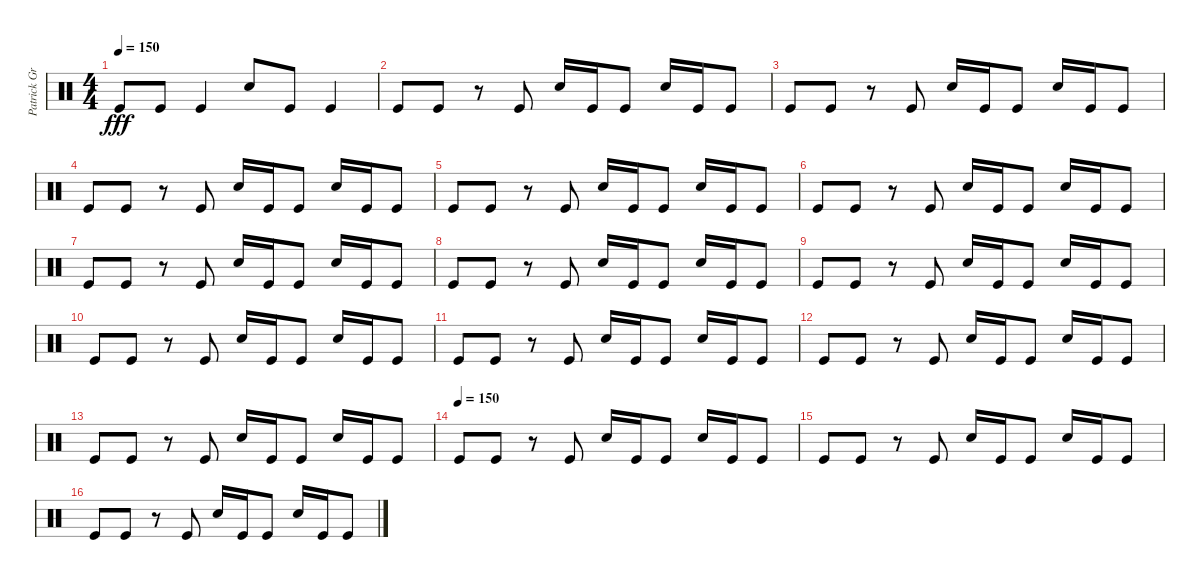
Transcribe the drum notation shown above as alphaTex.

\track ("Patrick Grün - Drums" "Patrick Gr") {instrument percussion}
\staff {score}
\articulation defaults
\ts (4 4)
\tempo 150
\clef neutral
\ks c "Kick (hit)".8{dy fff} "Kick (hit)".8 "Kick (hit)".4 "Snare (hit) 2".8 "Kick (hit)".8 "Kick (hit)".4
|
"Kick (hit)".8 "Kick (hit)".8 r.8 "Kick (hit)".8 "Snare (hit) 2".16 "Kick (hit)".16 "Kick (hit)".8 "Snare (hit) 2".16 "Kick (hit)".16 "Kick (hit)".8 |
"Kick (hit)".8 "Kick (hit)".8 r.8 "Kick (hit)".8 "Snare (hit) 2".16 "Kick (hit)".16 "Kick (hit)".8 "Snare (hit) 2".16 "Kick (hit)".16 "Kick (hit)".8 |
"Kick (hit)".8 "Kick (hit)".8 r.8 "Kick (hit)".8 "Snare (hit) 2".16 "Kick (hit)".16 "Kick (hit)".8 "Snare (hit) 2".16 "Kick (hit)".16 "Kick (hit)".8 |
"Kick (hit)".8 "Kick (hit)".8 r.8 "Kick (hit)".8 "Snare (hit) 2".16 "Kick (hit)".16 "Kick (hit)".8 "Snare (hit) 2".16 "Kick (hit)".16 "Kick (hit)".8 |
"Kick (hit)".8 "Kick (hit)".8 r.8 "Kick (hit)".8 "Snare (hit) 2".16 "Kick (hit)".16 "Kick (hit)".8 "Snare (hit) 2".16 "Kick (hit)".16 "Kick (hit)".8 |
"Kick (hit)".8 "Kick (hit)".8 r.8 "Kick (hit)".8 "Snare (hit) 2".16 "Kick (hit)".16 "Kick (hit)".8 "Snare (hit) 2".16 "Kick (hit)".16 "Kick (hit)".8 |
"Kick (hit)".8 "Kick (hit)".8 r.8 "Kick (hit)".8 "Snare (hit) 2".16 "Kick (hit)".16 "Kick (hit)".8 "Snare (hit) 2".16 "Kick (hit)".16 "Kick (hit)".8 |
"Kick (hit)".8 "Kick (hit)".8 r.8 "Kick (hit)".8 "Snare (hit) 2".16 "Kick (hit)".16 "Kick (hit)".8 "Snare (hit) 2".16 "Kick (hit)".16 "Kick (hit)".8 |
"Kick (hit)".8 "Kick (hit)".8 r.8 "Kick (hit)".8 "Snare (hit) 2".16 "Kick (hit)".16 "Kick (hit)".8 "Snare (hit) 2".16 "Kick (hit)".16 "Kick (hit)".8 |
"Kick (hit)".8 "Kick (hit)".8 r.8 "Kick (hit)".8 "Snare (hit) 2".16 "Kick (hit)".16 "Kick (hit)".8 "Snare (hit) 2".16 "Kick (hit)".16 "Kick (hit)".8 |
"Kick (hit)".8 "Kick (hit)".8 r.8 "Kick (hit)".8 "Snare (hit) 2".16 "Kick (hit)".16 "Kick (hit)".8 "Snare (hit) 2".16 "Kick (hit)".16 "Kick (hit)".8 |
"Kick (hit)".8 "Kick (hit)".8 r.8 "Kick (hit)".8 "Snare (hit) 2".16 "Kick (hit)".16 "Kick (hit)".8 "Snare (hit) 2".16 "Kick (hit)".16 "Kick (hit)".8 |
\tempo (150)
"Kick (hit)".8 "Kick (hit)".8 r.8 "Kick (hit)".8 "Snare (hit) 2".16 "Kick (hit)".16 "Kick (hit)".8 "Snare (hit) 2".16 "Kick (hit)".16 "Kick (hit)".8 |
"Kick (hit)".8 "Kick (hit)".8 r.8 "Kick (hit)".8 "Snare (hit) 2".16 "Kick (hit)".16 "Kick (hit)".8 "Snare (hit) 2".16 "Kick (hit)".16 "Kick (hit)".8 |
"Kick (hit)".8 "Kick (hit)".8 r.8 "Kick (hit)".8 "Snare (hit) 2".16 "Kick (hit)".16 "Kick (hit)".8 "Snare (hit) 2".16 "Kick (hit)".16 "Kick (hit)".8
